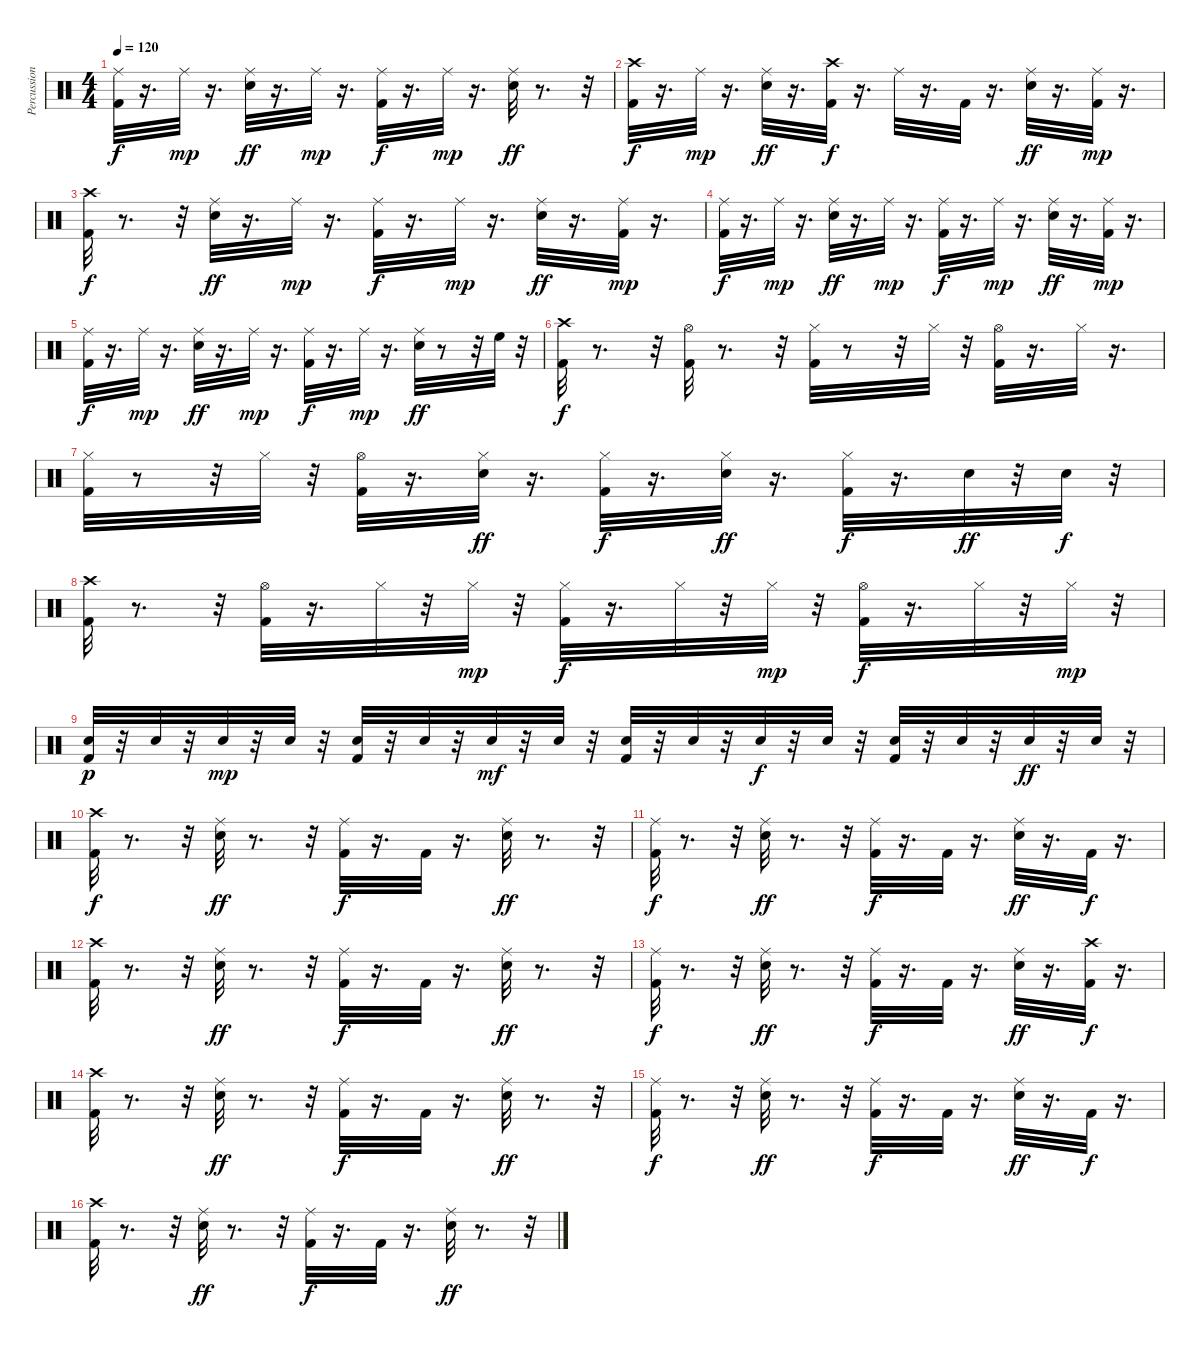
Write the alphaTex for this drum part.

\track ("Percussion" "Percussion") {instrument percussion}
\staff {score}
\articulation defaults
\ts (4 4)
\tempo 120
\clef neutral
\ks c
("Ride (middle)" "Kick (hit) 2").32{dy f} r.16{d} "Ride (middle)".32{dy mp} r.16{d} ("Snare (hit) 2" "Ride (middle)").32{dy ff} r.16{d} "Ride (middle)".32{dy mp} r.16{d} ("Ride (middle)" "Kick (hit) 2").32{dy f} r.16{d} "Ride (middle)".32{dy mp} r.16{d} ("Ride (middle)" "Snare (hit) 2").32{dy ff} r.8{d} r.32 |
("Crash high (hit)" "Kick (hit) 2").32{dy f} r.16{d} "Ride (middle)".32{dy mp} r.16{d} ("Snare (hit) 2" "Ride (middle)").32{dy ff} r.16{d} ("Crash high (hit)" "Kick (hit) 2").32{dy f} r.16{d} "Ride (middle)".32 r.16{d} "Kick (hit) 2".32 r.16{d} ("Snare (hit) 2" "Ride (middle)").32{dy ff} r.16{d} ("Ride (middle)" "Kick (hit) 2").32{dy mp} r.16{d} |
("Crash high (hit)" "Kick (hit) 2").32{dy f} r.8{d} r.32 ("Snare (hit) 2" "Ride (middle)").32{dy ff} r.16{d} "Ride (middle)".32{dy mp} r.16{d} ("Ride (middle)" "Kick (hit) 2").32{dy f} r.16{d} "Ride (middle)".32{dy mp} r.16{d} ("Snare (hit) 2" "Ride (middle)").32{dy ff} r.16{d} ("Ride (middle)" "Kick (hit) 2").32{dy mp} r.16{d} |
("Ride (middle)" "Kick (hit) 2").32{dy f} r.16{d} "Ride (middle)".32{dy mp} r.16{d} ("Snare (hit) 2" "Ride (middle)").32{dy ff} r.16{d} "Ride (middle)".32{dy mp} r.16{d} ("Ride (middle)" "Kick (hit) 2").32{dy f} r.16{d} "Ride (middle)".32{dy mp} r.16{d} ("Snare (hit) 2" "Ride (middle)").32{dy ff} r.16{d} ("Ride (middle)" "Kick (hit) 2").32{dy mp} r.16{d} |
("Ride (middle)" "Kick (hit) 2").32{dy f} r.16{d} "Ride (middle)".32{dy mp} r.16{d} ("Snare (hit) 2" "Ride (middle)").32{dy ff} r.16{d} "Ride (middle)".32{dy mp} r.16{d} ("Ride (middle)" "Kick (hit) 2").32{dy f} r.16{d} "Ride (middle)".32{dy mp} r.16{d} ("Snare (hit) 2" "Ride (middle)").32{dy ff} r.8 r.32 "High Floor Tom (hit)".32 r.32 |
("Crash high (hit)" "Kick (hit) 2").32{dy f} r.8{d} r.32 ("Hi-Hat (open)" "Kick (hit) 2").32 r.8{d} r.32 ("Hi-Hat (closed)" "Kick (hit) 2").32 r.8 r.32 "Hi-Hat (closed)".32 r.32 ("Hi-Hat (open)" "Kick (hit) 2").32 r.16{d} "Hi-Hat (closed)".32 r.16{d} |
("Hi-Hat (closed)" "Kick (hit) 2").32 r.8 r.32 "Hi-Hat (closed)".32 r.32 ("Hi-Hat (open)" "Kick (hit) 2").32 r.16{d} ("Snare (hit) 2" "Hi-Hat (closed)").32{dy ff} r.16{d} ("Hi-Hat (closed)" "Kick (hit) 2").32{dy f} r.16{d} ("Hi-Hat (closed)" "Snare (hit) 2").32{dy ff} r.16{d} ("Hi-Hat (closed)" "Kick (hit) 2").32{dy f} r.16{d} "Snare (hit) 2".32{dy ff} r.32 "Snare (hit) 2".32{dy f} r.32 |
("Crash high (hit)" "Kick (hit) 2").32 r.8{d} r.32 ("Hi-Hat (open)" "Kick (hit) 2").32 r.16{d} "Hi-Hat (closed)".32 r.32 "Hi-Hat (closed)".32{dy mp} r.32 ("Hi-Hat (closed)" "Kick (hit) 2").32{dy f} r.16{d} "Hi-Hat (closed)".32 r.32 "Hi-Hat (closed)".32{dy mp} r.32 ("Hi-Hat (open)" "Kick (hit) 2").32{dy f} r.16{d} "Hi-Hat (closed)".32 r.32 "Hi-Hat (closed)".32{dy mp} r.32 |
("Snare (hit) 2" "Kick (hit) 2").32{dy p} r.32 "Snare (hit) 2".32 r.32 "Snare (hit) 2".32{dy mp} r.32 "Snare (hit) 2".32 r.32 ("Snare (hit) 2" "Kick (hit) 2").32 r.32 "Snare (hit) 2".32 r.32 "Snare (hit) 2".32{dy mf} r.32 "Snare (hit) 2".32 r.32 ("Snare (hit) 2" "Kick (hit) 2").32 r.32 "Snare (hit) 2".32 r.32 "Snare (hit) 2".32{dy f} r.32 "Snare (hit) 2".32 r.32 ("Snare (hit) 2" "Kick (hit) 2").32 r.32 "Snare (hit) 2".32 r.32 "Snare (hit) 2".32{dy ff} r.32 "Snare (hit) 2".32 r.32 |
("Crash high (hit)" "Kick (hit) 2").32{dy f} r.8{d} r.32 ("Snare (hit) 2" "Ride (middle)").32{dy ff} r.8{d} r.32 ("Ride (middle)" "Kick (hit) 2").32{dy f} r.16{d} "Kick (hit) 2".32 r.16{d} ("Snare (hit) 2" "Ride (middle)").32{dy ff} r.8{d} r.32 |
("Ride (middle)" "Kick (hit) 2").32{dy f} r.8{d} r.32 ("Snare (hit) 2" "Ride (middle)").32{dy ff} r.8{d} r.32 ("Ride (middle)" "Kick (hit) 2").32{dy f} r.16{d} "Kick (hit) 2".32 r.16{d} ("Snare (hit) 2" "Ride (middle)").32{dy ff} r.16{d} "Kick (hit) 2".32{dy f} r.16{d} |
("Crash high (hit)" "Kick (hit) 2").32 r.8{d} r.32 ("Snare (hit) 2" "Ride (middle)").32{dy ff} r.8{d} r.32 ("Ride (middle)" "Kick (hit) 2").32{dy f} r.16{d} "Kick (hit) 2".32 r.16{d} ("Snare (hit) 2" "Ride (middle)").32{dy ff} r.8{d} r.32 |
("Ride (middle)" "Kick (hit) 2").32{dy f} r.8{d} r.32 ("Snare (hit) 2" "Ride (middle)").32{dy ff} r.8{d} r.32 ("Ride (middle)" "Kick (hit) 2").32{dy f} r.16{d} "Kick (hit) 2".32 r.16{d} ("Ride (middle)" "Snare (hit) 2").32{dy ff} r.16{d} ("Crash high (hit)" "Kick (hit) 2").32{dy f} r.16{d} |
("Crash high (hit)" "Kick (hit) 2").32 r.8{d} r.32 ("Snare (hit) 2" "Ride (middle)").32{dy ff} r.8{d} r.32 ("Ride (middle)" "Kick (hit) 2").32{dy f} r.16{d} "Kick (hit) 2".32 r.16{d} ("Snare (hit) 2" "Ride (middle)").32{dy ff} r.8{d} r.32 |
("Ride (middle)" "Kick (hit) 2").32{dy f} r.8{d} r.32 ("Snare (hit) 2" "Ride (middle)").32{dy ff} r.8{d} r.32 ("Ride (middle)" "Kick (hit) 2").32{dy f} r.16{d} "Kick (hit) 2".32 r.16{d} ("Snare (hit) 2" "Ride (middle)").32{dy ff} r.16{d} "Kick (hit) 2".32{dy f} r.16{d} |
("Crash high (hit)" "Kick (hit) 2").32 r.8{d} r.32 ("Snare (hit) 2" "Ride (middle)").32{dy ff} r.8{d} r.32 ("Ride (middle)" "Kick (hit) 2").32{dy f} r.16{d} "Kick (hit) 2".32 r.16{d} ("Snare (hit) 2" "Ride (middle)").32{dy ff} r.8{d} r.32
